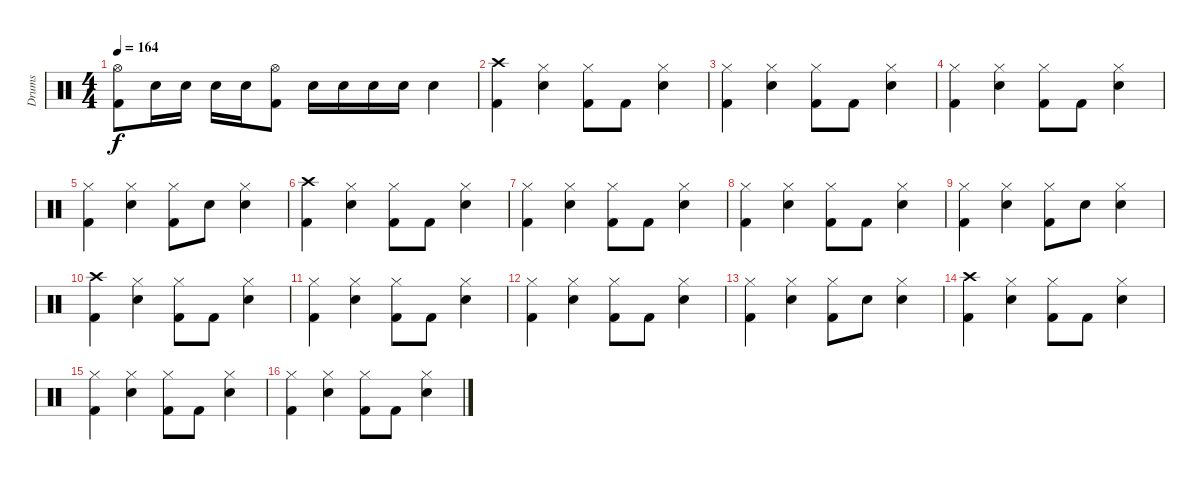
\track ("Drums" "Drums") {instrument percussion}
\staff {score}
\articulation defaults
\ts (4 4)
\tempo 164
\clef neutral
\ks c
("Kick (hit) 2" "Hi-Hat (open)").8{dy f} "Snare (hit) 2".16 "Snare (hit) 2".16 "Snare (hit) 2".16 "Snare (hit) 2".16 ("Kick (hit) 2" "Hi-Hat (open)").8 "Snare (hit) 2".16 "Snare (hit) 2".16 "Snare (hit) 2".16 "Snare (hit) 2".16 "Snare (hit) 2".4 |
("Kick (hit) 2" "Crash high (hit)").4 ("Snare (hit) 2" "Hi-Hat (closed)").4 ("Kick (hit) 2" "Hi-Hat (closed)").8 "Kick (hit) 2".8 ("Snare (hit) 2" "Hi-Hat (closed)").4 |
("Kick (hit) 2" "Hi-Hat (closed)").4 ("Snare (hit) 2" "Hi-Hat (closed)").4 ("Kick (hit) 2" "Hi-Hat (closed)").8 "Kick (hit) 2".8 ("Snare (hit) 2" "Hi-Hat (closed)").4 |
("Kick (hit) 2" "Hi-Hat (closed)").4 ("Snare (hit) 2" "Hi-Hat (closed)").4 ("Kick (hit) 2" "Hi-Hat (closed)").8 "Kick (hit) 2".8 ("Snare (hit) 2" "Hi-Hat (closed)").4 |
("Kick (hit) 2" "Hi-Hat (closed)").4 ("Snare (hit) 2" "Hi-Hat (closed)").4 ("Kick (hit) 2" "Hi-Hat (closed)").8 "Snare (hit) 2".8 ("Snare (hit) 2" "Hi-Hat (closed)").4 |
("Kick (hit) 2" "Crash high (hit)").4 ("Snare (hit) 2" "Hi-Hat (closed)").4 ("Kick (hit) 2" "Hi-Hat (closed)").8 "Kick (hit) 2".8 ("Snare (hit) 2" "Hi-Hat (closed)").4 |
("Kick (hit) 2" "Hi-Hat (closed)").4 ("Snare (hit) 2" "Hi-Hat (closed)").4 ("Kick (hit) 2" "Hi-Hat (closed)").8 "Kick (hit) 2".8 ("Snare (hit) 2" "Hi-Hat (closed)").4 |
("Kick (hit) 2" "Hi-Hat (closed)").4 ("Snare (hit) 2" "Hi-Hat (closed)").4 ("Kick (hit) 2" "Hi-Hat (closed)").8 "Kick (hit) 2".8 ("Snare (hit) 2" "Hi-Hat (closed)").4 |
("Kick (hit) 2" "Hi-Hat (closed)").4 ("Snare (hit) 2" "Hi-Hat (closed)").4 ("Kick (hit) 2" "Hi-Hat (closed)").8 "Snare (hit) 2".8 ("Snare (hit) 2" "Hi-Hat (closed)").4 |
("Kick (hit) 2" "Crash high (hit)").4 ("Snare (hit) 2" "Hi-Hat (closed)").4 ("Kick (hit) 2" "Hi-Hat (closed)").8 "Kick (hit) 2".8 ("Snare (hit) 2" "Hi-Hat (closed)").4 |
("Kick (hit) 2" "Hi-Hat (closed)").4 ("Snare (hit) 2" "Hi-Hat (closed)").4 ("Kick (hit) 2" "Hi-Hat (closed)").8 "Kick (hit) 2".8 ("Snare (hit) 2" "Hi-Hat (closed)").4 |
("Kick (hit) 2" "Hi-Hat (closed)").4 ("Snare (hit) 2" "Hi-Hat (closed)").4 ("Kick (hit) 2" "Hi-Hat (closed)").8 "Kick (hit) 2".8 ("Snare (hit) 2" "Hi-Hat (closed)").4 |
("Kick (hit) 2" "Hi-Hat (closed)").4 ("Snare (hit) 2" "Hi-Hat (closed)").4 ("Kick (hit) 2" "Hi-Hat (closed)").8 "Snare (hit) 2".8 ("Snare (hit) 2" "Hi-Hat (closed)").4 |
("Kick (hit) 2" "Crash high (hit)").4 ("Snare (hit) 2" "Hi-Hat (closed)").4 ("Kick (hit) 2" "Hi-Hat (closed)").8 "Kick (hit) 2".8 ("Snare (hit) 2" "Hi-Hat (closed)").4 |
("Kick (hit) 2" "Hi-Hat (closed)").4 ("Snare (hit) 2" "Hi-Hat (closed)").4 ("Kick (hit) 2" "Hi-Hat (closed)").8 "Kick (hit) 2".8 ("Snare (hit) 2" "Hi-Hat (closed)").4 |
("Kick (hit) 2" "Hi-Hat (closed)").4 ("Snare (hit) 2" "Hi-Hat (closed)").4 ("Kick (hit) 2" "Hi-Hat (closed)").8 "Kick (hit) 2".8 ("Snare (hit) 2" "Hi-Hat (closed)").4
